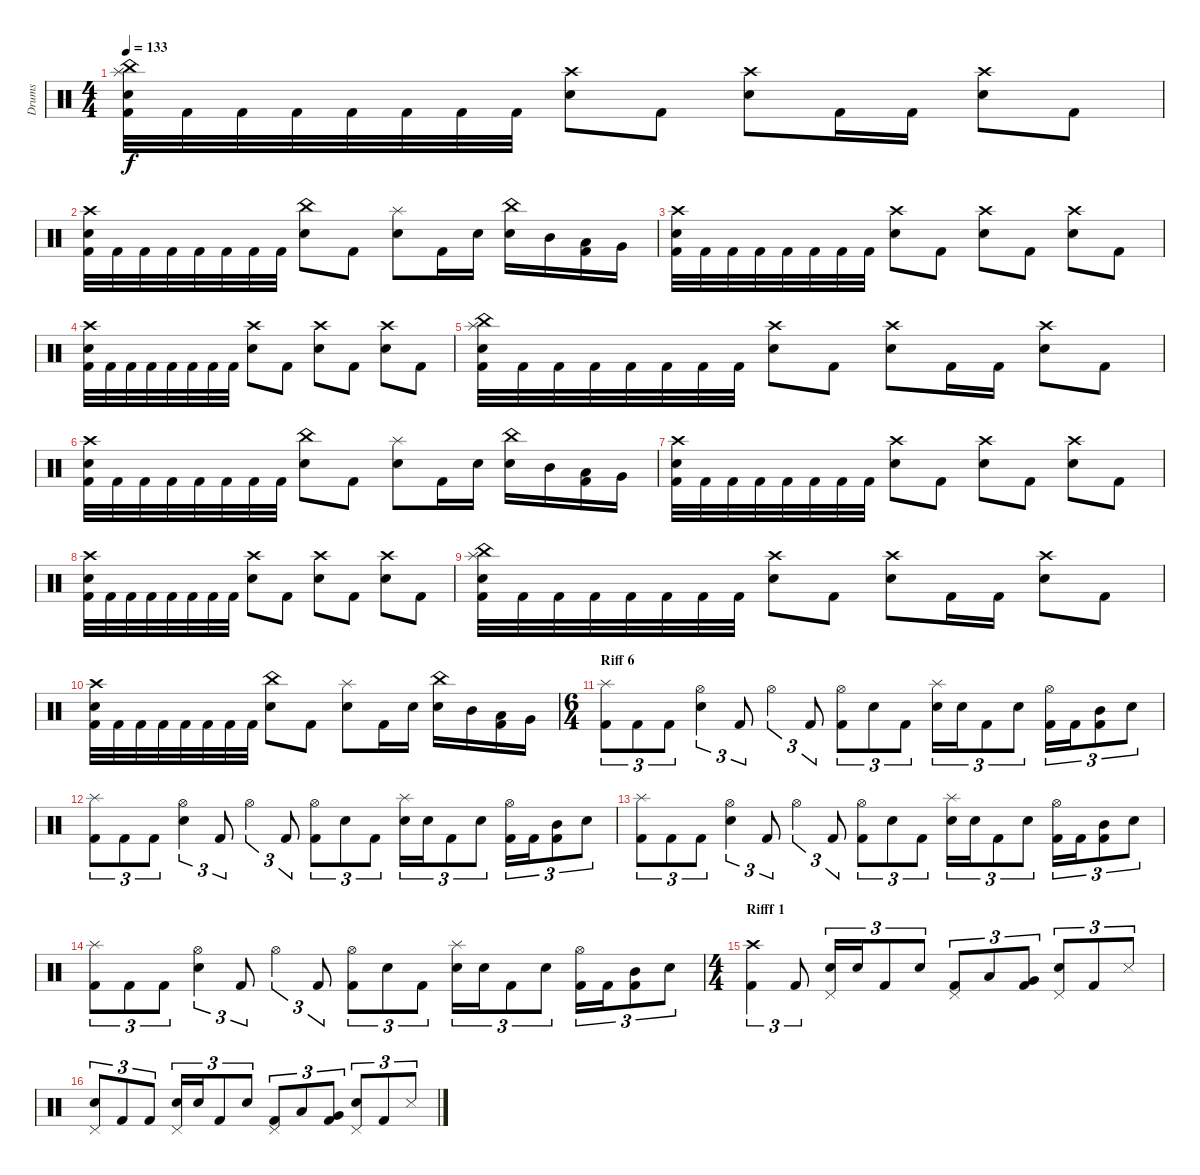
\track ("Drums" "Drums") {instrument percussion}
\staff {score}
\articulation defaults
\ts (4 4)
\tempo 133
\clef neutral
\ks c
("Kick (hit) 2" "Snare (hit) 2" "China (hit)" "Splash (hit)").32{dy f} "Kick (hit) 2".32 "Kick (hit) 2".32 "Kick (hit) 2".32 "Kick (hit) 2".32 "Kick (hit) 2".32 "Kick (hit) 2".32 "Kick (hit) 2".32 ("Snare (hit) 2" "Crash high (hit)").8 "Kick (hit) 2".8 ("Snare (hit) 2" "Crash high (hit)").8 "Kick (hit) 2".16 "Kick (hit) 2".16 ("Snare (hit) 2" "Crash high (hit)").8 "Kick (hit) 2".8 |
("Kick (hit) 2" "Snare (hit) 2" "Crash high (hit)").32 "Kick (hit) 2".32 "Kick (hit) 2".32 "Kick (hit) 2".32 "Kick (hit) 2".32 "Kick (hit) 2".32 "Kick (hit) 2".32 "Kick (hit) 2".32 ("Snare (hit) 2" "China (hit)").8 "Kick (hit) 2".8 ("Snare (hit) 2" "Splash (hit)").8 "Kick (hit) 2".16 "Snare (hit) 2".16 ("Snare (hit) 2" "China (hit)").16 "Mid Tom (hit)".16 ("Kick (hit) 2" "Low Tom (hit)").16 "Very Low Tom (hit)".16 |
("Kick (hit) 2" "Snare (hit) 2" "Crash high (hit)").32 "Kick (hit) 2".32 "Kick (hit) 2".32 "Kick (hit) 2".32 "Kick (hit) 2".32 "Kick (hit) 2".32 "Kick (hit) 2".32 "Kick (hit) 2".32 ("Snare (hit) 2" "Crash high (hit)").8 "Kick (hit) 2".8 ("Snare (hit) 2" "Crash high (hit)").8 "Kick (hit) 2".8 ("Snare (hit) 2" "Crash high (hit)").8 "Kick (hit) 2".8 |
("Kick (hit) 2" "Snare (hit) 2" "Crash high (hit)").32 "Kick (hit) 2".32 "Kick (hit) 2".32 "Kick (hit) 2".32 "Kick (hit) 2".32 "Kick (hit) 2".32 "Kick (hit) 2".32 "Kick (hit) 2".32 ("Snare (hit) 2" "Crash high (hit)").8 "Kick (hit) 2".8 ("Snare (hit) 2" "Crash high (hit)").8 "Kick (hit) 2".8 ("Snare (hit) 2" "Crash high (hit)").8 "Kick (hit) 2".8 |
("Kick (hit) 2" "Snare (hit) 2" "China (hit)" "Splash (hit)").32 "Kick (hit) 2".32 "Kick (hit) 2".32 "Kick (hit) 2".32 "Kick (hit) 2".32 "Kick (hit) 2".32 "Kick (hit) 2".32 "Kick (hit) 2".32 ("Snare (hit) 2" "Crash high (hit)").8 "Kick (hit) 2".8 ("Snare (hit) 2" "Crash high (hit)").8 "Kick (hit) 2".16 "Kick (hit) 2".16 ("Snare (hit) 2" "Crash high (hit)").8 "Kick (hit) 2".8 |
("Kick (hit) 2" "Snare (hit) 2" "Crash high (hit)").32 "Kick (hit) 2".32 "Kick (hit) 2".32 "Kick (hit) 2".32 "Kick (hit) 2".32 "Kick (hit) 2".32 "Kick (hit) 2".32 "Kick (hit) 2".32 ("Snare (hit) 2" "China (hit)").8 "Kick (hit) 2".8 ("Snare (hit) 2" "Splash (hit)").8 "Kick (hit) 2".16 "Snare (hit) 2".16 ("Snare (hit) 2" "China (hit)").16 "Mid Tom (hit)".16 ("Kick (hit) 2" "Low Tom (hit)").16 "Very Low Tom (hit)".16 |
("Kick (hit) 2" "Snare (hit) 2" "Crash high (hit)").32 "Kick (hit) 2".32 "Kick (hit) 2".32 "Kick (hit) 2".32 "Kick (hit) 2".32 "Kick (hit) 2".32 "Kick (hit) 2".32 "Kick (hit) 2".32 ("Snare (hit) 2" "Crash high (hit)").8 "Kick (hit) 2".8 ("Snare (hit) 2" "Crash high (hit)").8 "Kick (hit) 2".8 ("Snare (hit) 2" "Crash high (hit)").8 "Kick (hit) 2".8 |
("Kick (hit) 2" "Snare (hit) 2" "Crash high (hit)").32 "Kick (hit) 2".32 "Kick (hit) 2".32 "Kick (hit) 2".32 "Kick (hit) 2".32 "Kick (hit) 2".32 "Kick (hit) 2".32 "Kick (hit) 2".32 ("Snare (hit) 2" "Crash high (hit)").8 "Kick (hit) 2".8 ("Snare (hit) 2" "Crash high (hit)").8 "Kick (hit) 2".8 ("Snare (hit) 2" "Crash high (hit)").8 "Kick (hit) 2".8 |
("Kick (hit) 2" "Snare (hit) 2" "China (hit)" "Splash (hit)").32 "Kick (hit) 2".32 "Kick (hit) 2".32 "Kick (hit) 2".32 "Kick (hit) 2".32 "Kick (hit) 2".32 "Kick (hit) 2".32 "Kick (hit) 2".32 ("Snare (hit) 2" "Crash high (hit)").8 "Kick (hit) 2".8 ("Snare (hit) 2" "Crash high (hit)").8 "Kick (hit) 2".16 "Kick (hit) 2".16 ("Snare (hit) 2" "Crash high (hit)").8 "Kick (hit) 2".8 |
("Kick (hit) 2" "Snare (hit) 2" "Crash high (hit)").32 "Kick (hit) 2".32 "Kick (hit) 2".32 "Kick (hit) 2".32 "Kick (hit) 2".32 "Kick (hit) 2".32 "Kick (hit) 2".32 "Kick (hit) 2".32 ("Snare (hit) 2" "China (hit)").8 "Kick (hit) 2".8 ("Snare (hit) 2" "Splash (hit)").8 "Kick (hit) 2".16 "Snare (hit) 2".16 ("Snare (hit) 2" "China (hit)").16 "Mid Tom (hit)".16 ("Kick (hit) 2" "Low Tom (hit)").16 "Very Low Tom (hit)".16 |
\ts (6 4)
\section ("" "Riff 6")
("Kick (hit) 2" "Splash (hit)").8{tu (3 2)} "Kick (hit) 2".8{tu (3 2)} "Kick (hit) 2".8{tu (3 2)} ("Snare (hit) 2" "Hi-Hat (open)").4{tu (3 2)} "Kick (hit) 2".8{tu (3 2)} "Hi-Hat (open)".4{tu (3 2)} "Kick (hit) 2".8{tu (3 2)} ("Kick (hit) 2" "Hi-Hat (open)").8{tu (3 2)} "Snare (hit) 2".8{tu (3 2)} "Kick (hit) 2".8{tu (3 2)} ("Snare (hit) 2" "Splash (hit)").16{tu (3 2)} "Snare (hit) 2".16{tu (3 2)} "Kick (hit) 2".8{tu (3 2)} "Snare (hit) 2".8{tu (3 2)} ("Kick (hit) 2" "Hi-Hat (open)").16{tu (3 2)} "Kick (hit) 2".16{tu (3 2)} ("Kick (hit) 2" "Mid Tom (hit)").8{tu (3 2)} "Snare (hit) 2".8{tu (3 2)} |
("Kick (hit) 2" "Splash (hit)").8{tu (3 2)} "Kick (hit) 2".8{tu (3 2)} "Kick (hit) 2".8{tu (3 2)} ("Snare (hit) 2" "Hi-Hat (open)").4{tu (3 2)} "Kick (hit) 2".8{tu (3 2)} "Hi-Hat (open)".4{tu (3 2)} "Kick (hit) 2".8{tu (3 2)} ("Kick (hit) 2" "Hi-Hat (open)").8{tu (3 2)} "Snare (hit) 2".8{tu (3 2)} "Kick (hit) 2".8{tu (3 2)} ("Snare (hit) 2" "Splash (hit)").16{tu (3 2)} "Snare (hit) 2".16{tu (3 2)} "Kick (hit) 2".8{tu (3 2)} "Snare (hit) 2".8{tu (3 2)} ("Kick (hit) 2" "Hi-Hat (open)").16{tu (3 2)} "Kick (hit) 2".16{tu (3 2)} ("Kick (hit) 2" "Mid Tom (hit)").8{tu (3 2)} "Snare (hit) 2".8{tu (3 2)} |
("Kick (hit) 2" "Splash (hit)").8{tu (3 2)} "Kick (hit) 2".8{tu (3 2)} "Kick (hit) 2".8{tu (3 2)} ("Snare (hit) 2" "Hi-Hat (open)").4{tu (3 2)} "Kick (hit) 2".8{tu (3 2)} "Hi-Hat (open)".4{tu (3 2)} "Kick (hit) 2".8{tu (3 2)} ("Kick (hit) 2" "Hi-Hat (open)").8{tu (3 2)} "Snare (hit) 2".8{tu (3 2)} "Kick (hit) 2".8{tu (3 2)} ("Snare (hit) 2" "Splash (hit)").16{tu (3 2)} "Snare (hit) 2".16{tu (3 2)} "Kick (hit) 2".8{tu (3 2)} "Snare (hit) 2".8{tu (3 2)} ("Kick (hit) 2" "Hi-Hat (open)").16{tu (3 2)} "Kick (hit) 2".16{tu (3 2)} ("Kick (hit) 2" "Mid Tom (hit)").8{tu (3 2)} "Snare (hit) 2".8{tu (3 2)} |
("Kick (hit) 2" "Splash (hit)").8{tu (3 2)} "Kick (hit) 2".8{tu (3 2)} "Kick (hit) 2".8{tu (3 2)} ("Snare (hit) 2" "Hi-Hat (open)").4{tu (3 2)} "Kick (hit) 2".8{tu (3 2)} "Hi-Hat (open)".4{tu (3 2)} "Kick (hit) 2".8{tu (3 2)} ("Kick (hit) 2" "Hi-Hat (open)").8{tu (3 2)} "Snare (hit) 2".8{tu (3 2)} "Kick (hit) 2".8{tu (3 2)} ("Snare (hit) 2" "Splash (hit)").16{tu (3 2)} "Snare (hit) 2".16{tu (3 2)} "Kick (hit) 2".8{tu (3 2)} "Snare (hit) 2".8{tu (3 2)} ("Kick (hit) 2" "Hi-Hat (open)").16{tu (3 2)} "Kick (hit) 2".16{tu (3 2)} ("Kick (hit) 2" "Mid Tom (hit)").8{tu (3 2)} "Snare (hit) 2".8{tu (3 2)} |
\ts (4 4)
\section ("" "Rifff 1")
("Kick (hit) 2" "Crash high (hit)").4{tu (3 2)} "Kick (hit) 2".8{tu (3 2)} ("Snare (hit) 2" "Pedal Hi-Hat (hit)").16{tu (3 2)} "Snare (hit) 2".16{tu (3 2)} "Kick (hit) 2".8{tu (3 2)} "Snare (hit) 2".8{tu (3 2)} ("Kick (hit) 2" "Pedal Hi-Hat (hit)").8{tu (3 2)} "Low Tom (hit)".8{tu (3 2)} ("Kick (hit) 2" "Very Low Tom (hit)").8{tu (3 2)} ("Snare (hit) 2" "Pedal Hi-Hat (hit)").8{tu (3 2)} "Kick (hit) 2".8{tu (3 2)} "Snare (side stick) 3".8{tu (3 2)} |
("Snare (hit) 2" "Pedal Hi-Hat (hit)").8{tu (3 2)} "Kick (hit) 2".8{tu (3 2)} "Kick (hit) 2".8{tu (3 2)} ("Snare (hit) 2" "Pedal Hi-Hat (hit)").16{tu (3 2)} "Snare (hit) 2".16{tu (3 2)} "Kick (hit) 2".8{tu (3 2)} "Snare (hit) 2".8{tu (3 2)} ("Kick (hit) 2" "Pedal Hi-Hat (hit)").8{tu (3 2)} "Low Tom (hit)".8{tu (3 2)} ("Kick (hit) 2" "Very Low Tom (hit)").8{tu (3 2)} ("Snare (hit) 2" "Pedal Hi-Hat (hit)").8{tu (3 2)} "Kick (hit) 2".8{tu (3 2)} "Snare (side stick) 3".8{tu (3 2)}
